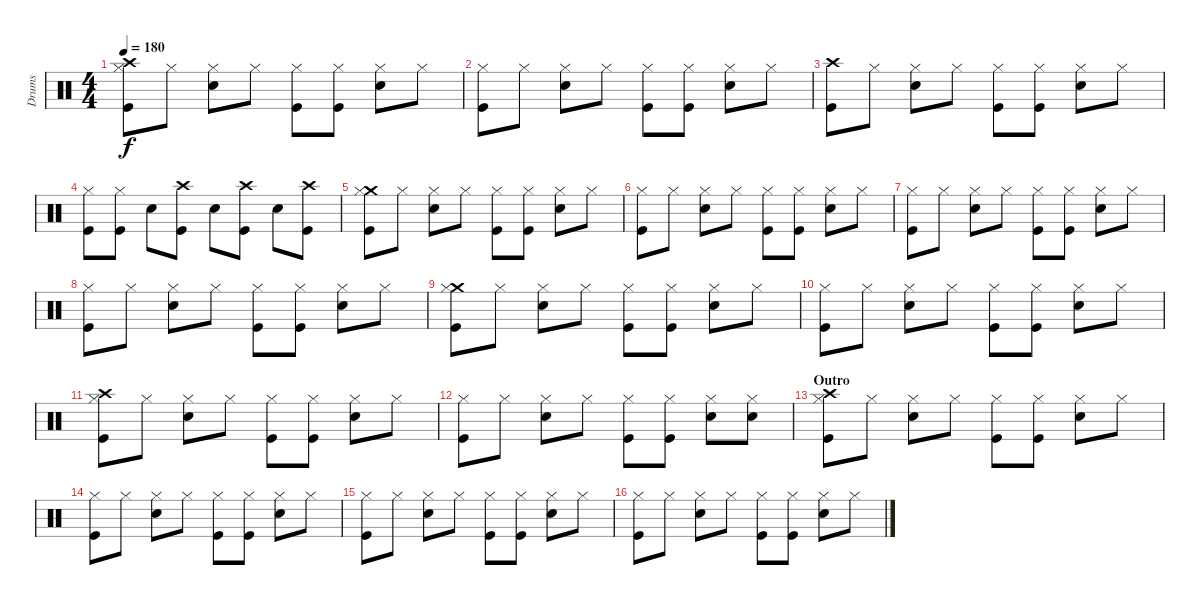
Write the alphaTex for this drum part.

\track ("Drums" "Drums") {instrument percussion}
\staff {score}
\articulation defaults
\ts (4 4)
\tempo 180
\clef neutral
\ks c
("Crash high (hit)" "Hi-Hat (closed)" "Kick (hit)").8{dy f} "Hi-Hat (closed)".8 ("Hi-Hat (closed)" "Electric Snare (hit)").8 "Hi-Hat (closed)".8 ("Kick (hit)" "Hi-Hat (closed)").8 ("Hi-Hat (closed)" "Kick (hit)").8 ("Hi-Hat (closed)" "Electric Snare (hit)").8 "Hi-Hat (closed)".8 |
("Hi-Hat (closed)" "Kick (hit)").8 "Hi-Hat (closed)".8 ("Hi-Hat (closed)" "Electric Snare (hit)").8 "Hi-Hat (closed)".8 ("Kick (hit)" "Hi-Hat (closed)").8 ("Hi-Hat (closed)" "Kick (hit)").8 ("Hi-Hat (closed)" "Electric Snare (hit)").8 "Hi-Hat (closed)".8 |
("Crash high (hit)" "Kick (hit)").8 "Hi-Hat (closed)".8 ("Hi-Hat (closed)" "Electric Snare (hit)").8 "Hi-Hat (closed)".8 ("Kick (hit)" "Hi-Hat (closed)").8 ("Hi-Hat (closed)" "Kick (hit)").8 ("Hi-Hat (closed)" "Electric Snare (hit)").8 "Hi-Hat (closed)".8 |
("Hi-Hat (closed)" "Kick (hit)").8 ("Hi-Hat (closed)" "Kick (hit)").8 "Electric Snare (hit)".8 ("Crash high (hit)" "Kick (hit)").8 "Electric Snare (hit)".8 ("Kick (hit)" "Crash high (hit)").8 "Electric Snare (hit)".8 ("Kick (hit)" "Crash high (hit)").8 |
("Crash medium (hit)" "Hi-Hat (closed)" "Kick (hit)").8 "Hi-Hat (closed)".8 ("Hi-Hat (closed)" "Electric Snare (hit)").8 "Hi-Hat (closed)".8 ("Kick (hit)" "Hi-Hat (closed)").8 ("Hi-Hat (closed)" "Kick (hit)").8 ("Hi-Hat (closed)" "Electric Snare (hit)").8 "Hi-Hat (closed)".8 |
("Hi-Hat (closed)" "Kick (hit)").8 "Hi-Hat (closed)".8 ("Hi-Hat (closed)" "Electric Snare (hit)").8 "Hi-Hat (closed)".8 ("Kick (hit)" "Hi-Hat (closed)").8 ("Hi-Hat (closed)" "Kick (hit)").8 ("Hi-Hat (closed)" "Electric Snare (hit)").8 "Hi-Hat (closed)".8 |
("Hi-Hat (closed)" "Kick (hit)").8 "Hi-Hat (closed)".8 ("Hi-Hat (closed)" "Electric Snare (hit)").8 "Hi-Hat (closed)".8 ("Kick (hit)" "Hi-Hat (closed)").8 ("Hi-Hat (closed)" "Kick (hit)").8 ("Hi-Hat (closed)" "Electric Snare (hit)").8 "Hi-Hat (closed)".8 |
("Hi-Hat (closed)" "Kick (hit)").8 "Hi-Hat (closed)".8 ("Hi-Hat (closed)" "Electric Snare (hit)").8 "Hi-Hat (closed)".8 ("Kick (hit)" "Hi-Hat (closed)").8 ("Hi-Hat (closed)" "Kick (hit)").8 ("Hi-Hat (closed)" "Electric Snare (hit)").8 "Hi-Hat (closed)".8 |
("Crash medium (hit)" "Hi-Hat (closed)" "Kick (hit)").8 "Hi-Hat (closed)".8 ("Hi-Hat (closed)" "Electric Snare (hit)").8 "Hi-Hat (closed)".8 ("Kick (hit)" "Hi-Hat (closed)").8 ("Hi-Hat (closed)" "Kick (hit)").8 ("Hi-Hat (closed)" "Electric Snare (hit)").8 "Hi-Hat (closed)".8 |
("Hi-Hat (closed)" "Kick (hit)").8 "Hi-Hat (closed)".8 ("Hi-Hat (closed)" "Electric Snare (hit)").8 "Hi-Hat (closed)".8 ("Kick (hit)" "Hi-Hat (closed)").8 ("Hi-Hat (closed)" "Kick (hit)").8 ("Hi-Hat (closed)" "Electric Snare (hit)").8 "Hi-Hat (closed)".8 |
("Crash high (hit)" "Hi-Hat (closed)" "Kick (hit)").8 "Hi-Hat (closed)".8 ("Hi-Hat (closed)" "Electric Snare (hit)").8 "Hi-Hat (closed)".8 ("Kick (hit)" "Hi-Hat (closed)").8 ("Hi-Hat (closed)" "Kick (hit)").8 ("Hi-Hat (closed)" "Electric Snare (hit)").8 "Hi-Hat (closed)".8 |
("Hi-Hat (closed)" "Kick (hit)").8 "Hi-Hat (closed)".8 ("Hi-Hat (closed)" "Electric Snare (hit)").8 "Hi-Hat (closed)".8 ("Kick (hit)" "Hi-Hat (closed)").8 ("Hi-Hat (closed)" "Kick (hit)").8 ("Hi-Hat (closed)" "Electric Snare (hit)").8 ("Electric Snare (hit)" "Hi-Hat (closed)").8 |
\section ("" "Outro")
("Crash high (hit)" "Hi-Hat (closed)" "Kick (hit)").8 "Hi-Hat (closed)".8 ("Hi-Hat (closed)" "Electric Snare (hit)").8 "Hi-Hat (closed)".8 ("Kick (hit)" "Hi-Hat (closed)").8 ("Hi-Hat (closed)" "Kick (hit)").8 ("Hi-Hat (closed)" "Electric Snare (hit)").8 "Hi-Hat (closed)".8 |
("Hi-Hat (closed)" "Kick (hit)").8 "Hi-Hat (closed)".8 ("Hi-Hat (closed)" "Electric Snare (hit)").8 "Hi-Hat (closed)".8 ("Kick (hit)" "Hi-Hat (closed)").8 ("Hi-Hat (closed)" "Kick (hit)").8 ("Hi-Hat (closed)" "Electric Snare (hit)").8 "Hi-Hat (closed)".8 |
("Hi-Hat (closed)" "Kick (hit)").8 "Hi-Hat (closed)".8 ("Hi-Hat (closed)" "Electric Snare (hit)").8 "Hi-Hat (closed)".8 ("Kick (hit)" "Hi-Hat (closed)").8 ("Hi-Hat (closed)" "Kick (hit)").8 ("Hi-Hat (closed)" "Electric Snare (hit)").8 "Hi-Hat (closed)".8 |
("Hi-Hat (closed)" "Kick (hit)").8 "Hi-Hat (closed)".8 ("Hi-Hat (closed)" "Electric Snare (hit)").8 "Hi-Hat (closed)".8 ("Kick (hit)" "Hi-Hat (closed)").8 ("Hi-Hat (closed)" "Kick (hit)").8 ("Hi-Hat (closed)" "Electric Snare (hit)").8 "Hi-Hat (closed)".8
